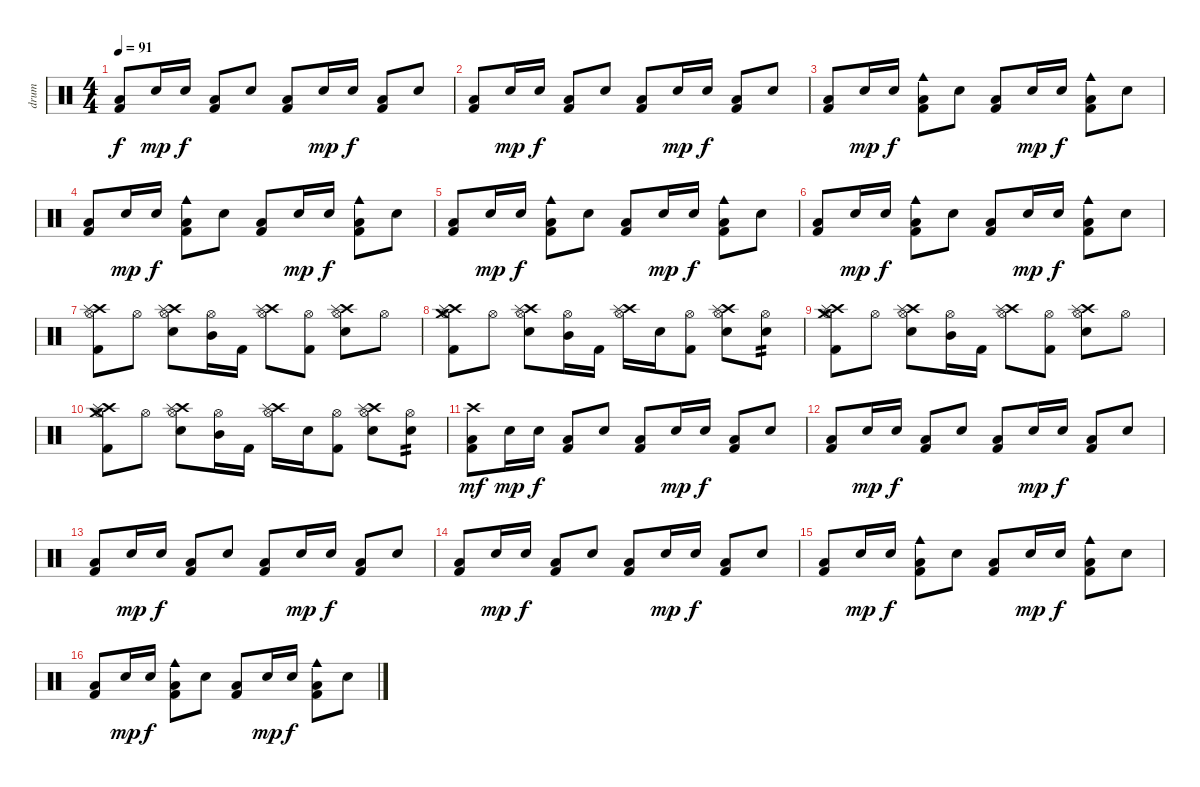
\track ("drum" "drum") {instrument percussion}
\staff {score}
\articulation defaults
\ts (4 4)
\tempo 91
\clef neutral
\ks c
("Low Floor Tom (hit)" "Kick (hit) 2").8{dy f} "Electric Snare (hit)".16{dy mp} "Electric Snare (hit)".16{dy f} ("Low Floor Tom (hit)" "Kick (hit) 2").8 "Electric Snare (hit)".8 ("Low Floor Tom (hit)" "Kick (hit) 2").8 "Electric Snare (hit)".16{dy mp} "Electric Snare (hit)".16{dy f} ("Low Floor Tom (hit)" "Kick (hit) 2").8 "Electric Snare (hit)".8 |
("Low Floor Tom (hit)" "Kick (hit) 2").8 "Electric Snare (hit)".16{dy mp} "Electric Snare (hit)".16{dy f} ("Low Floor Tom (hit)" "Kick (hit) 2").8 "Electric Snare (hit)".8 ("Low Floor Tom (hit)" "Kick (hit) 2").8 "Electric Snare (hit)".16{dy mp} "Electric Snare (hit)".16{dy f} ("Low Floor Tom (hit)" "Kick (hit) 2").8 "Electric Snare (hit)".8 |
("Low Floor Tom (hit)" "Kick (hit) 2").8 "Electric Snare (hit)".16{dy mp} "Electric Snare (hit)".16{dy f} ("Cowbell medium (hit)" "Low Floor Tom (hit)" "Kick (hit) 2").8 "Electric Snare (hit)".8 ("Low Floor Tom (hit)" "Kick (hit) 2").8 "Electric Snare (hit)".16{dy mp} "Electric Snare (hit)".16{dy f} ("Cowbell medium (hit)" "Low Floor Tom (hit)" "Kick (hit) 2").8 "Electric Snare (hit)".8 |
("Low Floor Tom (hit)" "Kick (hit) 2").8 "Electric Snare (hit)".16{dy mp} "Electric Snare (hit)".16{dy f} ("Cowbell medium (hit)" "Low Floor Tom (hit)" "Kick (hit) 2").8 "Electric Snare (hit)".8 ("Low Floor Tom (hit)" "Kick (hit) 2").8 "Electric Snare (hit)".16{dy mp} "Electric Snare (hit)".16{dy f} ("Cowbell medium (hit)" "Low Floor Tom (hit)" "Kick (hit) 2").8 "Electric Snare (hit)".8 |
("Low Floor Tom (hit)" "Kick (hit) 2").8 "Electric Snare (hit)".16{dy mp} "Electric Snare (hit)".16{dy f} ("Cowbell medium (hit)" "Low Floor Tom (hit)" "Kick (hit) 2").8 "Electric Snare (hit)".8 ("Low Floor Tom (hit)" "Kick (hit) 2").8 "Electric Snare (hit)".16{dy mp} "Electric Snare (hit)".16{dy f} ("Cowbell medium (hit)" "Low Floor Tom (hit)" "Kick (hit) 2").8 "Electric Snare (hit)".8 |
("Low Floor Tom (hit)" "Kick (hit) 2").8 "Electric Snare (hit)".16{dy mp} "Electric Snare (hit)".16{dy f} ("Cowbell medium (hit)" "Low Floor Tom (hit)" "Kick (hit) 2").8 "Electric Snare (hit)".8 ("Low Floor Tom (hit)" "Kick (hit) 2").8 "Electric Snare (hit)".16{dy mp} "Electric Snare (hit)".16{dy f} ("Cowbell medium (hit)" "Low Floor Tom (hit)" "Kick (hit) 2").8 "Electric Snare (hit)".8 |
("Crash high (hit)" "Splash (hit)" "Kick (hit) 2" "Hi-Hat (open)").8 "Hi-Hat (open)".8 ("Crash high (hit)" "Splash (hit)" "Electric Snare (hit)" "Hi-Hat (open)").8 ("Mid Tom (hit)" "Hi-Hat (open)").16 "Kick (hit) 2".16 ("Crash high (hit)" "Splash (hit)" "Hi-Hat (open)").8 ("Kick (hit) 2" "Hi-Hat (open)").8 ("Crash high (hit)" "Splash (hit)" "Electric Snare (hit)" "Hi-Hat (open)").8 "Hi-Hat (open)".8 |
("Crash high (hit)" "Splash (hit)" "Crash medium (hit)" "Kick (hit) 2" "Hi-Hat (open)").8 "Hi-Hat (open)".8 ("Crash high (hit)" "Splash (hit)" "Electric Snare (hit)" "Hi-Hat (open)").8 ("Mid Tom (hit)" "Hi-Hat (open)").16 "Kick (hit) 2".16 ("Crash high (hit)" "Splash (hit)" "Hi-Hat (open)").16 "Electric Snare (hit)".16 ("Kick (hit) 2" "Hi-Hat (open)").8 ("Crash high (hit)" "Splash (hit)" "Electric Snare (hit)" "Hi-Hat (open)").8 ("Electric Snare (hit)" "Hi-Hat (open)").8{tp 2} |
("Crash high (hit)" "Splash (hit)" "Crash medium (hit)" "Kick (hit) 2" "Hi-Hat (open)").8 "Hi-Hat (open)".8 ("Crash high (hit)" "Splash (hit)" "Electric Snare (hit)" "Hi-Hat (open)").8 ("Mid Tom (hit)" "Hi-Hat (open)").16 "Kick (hit) 2".16 ("Crash high (hit)" "Splash (hit)" "Hi-Hat (open)").8 ("Kick (hit) 2" "Hi-Hat (open)").8 ("Crash high (hit)" "Splash (hit)" "Electric Snare (hit)" "Hi-Hat (open)").8 "Hi-Hat (open)".8 |
("Crash high (hit)" "Splash (hit)" "Crash medium (hit)" "Kick (hit) 2" "Hi-Hat (open)").8 "Hi-Hat (open)".8 ("Crash high (hit)" "Splash (hit)" "Electric Snare (hit)" "Hi-Hat (open)").8 ("Mid Tom (hit)" "Hi-Hat (open)").16 "Kick (hit) 2".16 ("Crash high (hit)" "Splash (hit)" "Hi-Hat (open)").16 "Electric Snare (hit)".16 ("Kick (hit) 2" "Hi-Hat (open)").8 ("Crash high (hit)" "Splash (hit)" "Electric Snare (hit)" "Hi-Hat (open)").8 ("Electric Snare (hit)" "Hi-Hat (open)").8{tp 2} |
("Crash high (hit)" "Low Floor Tom (hit)" "Kick (hit) 2").8{dy mf} "Electric Snare (hit)".16{dy mp} "Electric Snare (hit)".16{dy f} ("Low Floor Tom (hit)" "Kick (hit) 2").8 "Electric Snare (hit)".8 ("Low Floor Tom (hit)" "Kick (hit) 2").8 "Electric Snare (hit)".16{dy mp} "Electric Snare (hit)".16{dy f} ("Low Floor Tom (hit)" "Kick (hit) 2").8 "Electric Snare (hit)".8 |
("Low Floor Tom (hit)" "Kick (hit) 2").8 "Electric Snare (hit)".16{dy mp} "Electric Snare (hit)".16{dy f} ("Low Floor Tom (hit)" "Kick (hit) 2").8 "Electric Snare (hit)".8 ("Low Floor Tom (hit)" "Kick (hit) 2").8 "Electric Snare (hit)".16{dy mp} "Electric Snare (hit)".16{dy f} ("Low Floor Tom (hit)" "Kick (hit) 2").8 "Electric Snare (hit)".8 |
("Low Floor Tom (hit)" "Kick (hit) 2").8 "Electric Snare (hit)".16{dy mp} "Electric Snare (hit)".16{dy f} ("Low Floor Tom (hit)" "Kick (hit) 2").8 "Electric Snare (hit)".8 ("Low Floor Tom (hit)" "Kick (hit) 2").8 "Electric Snare (hit)".16{dy mp} "Electric Snare (hit)".16{dy f} ("Low Floor Tom (hit)" "Kick (hit) 2").8 "Electric Snare (hit)".8 |
("Low Floor Tom (hit)" "Kick (hit) 2").8 "Electric Snare (hit)".16{dy mp} "Electric Snare (hit)".16{dy f} ("Low Floor Tom (hit)" "Kick (hit) 2").8 "Electric Snare (hit)".8 ("Low Floor Tom (hit)" "Kick (hit) 2").8 "Electric Snare (hit)".16{dy mp} "Electric Snare (hit)".16{dy f} ("Low Floor Tom (hit)" "Kick (hit) 2").8 "Electric Snare (hit)".8 |
("Low Floor Tom (hit)" "Kick (hit) 2").8 "Electric Snare (hit)".16{dy mp} "Electric Snare (hit)".16{dy f} ("Cowbell medium (hit)" "Low Floor Tom (hit)" "Kick (hit) 2").8 "Electric Snare (hit)".8 ("Low Floor Tom (hit)" "Kick (hit) 2").8 "Electric Snare (hit)".16{dy mp} "Electric Snare (hit)".16{dy f} ("Cowbell medium (hit)" "Low Floor Tom (hit)" "Kick (hit) 2").8 "Electric Snare (hit)".8 |
("Low Floor Tom (hit)" "Kick (hit) 2").8 "Electric Snare (hit)".16{dy mp} "Electric Snare (hit)".16{dy f} ("Cowbell medium (hit)" "Low Floor Tom (hit)" "Kick (hit) 2").8 "Electric Snare (hit)".8 ("Low Floor Tom (hit)" "Kick (hit) 2").8 "Electric Snare (hit)".16{dy mp} "Electric Snare (hit)".16{dy f} ("Cowbell medium (hit)" "Low Floor Tom (hit)" "Kick (hit) 2").8 "Electric Snare (hit)".8
